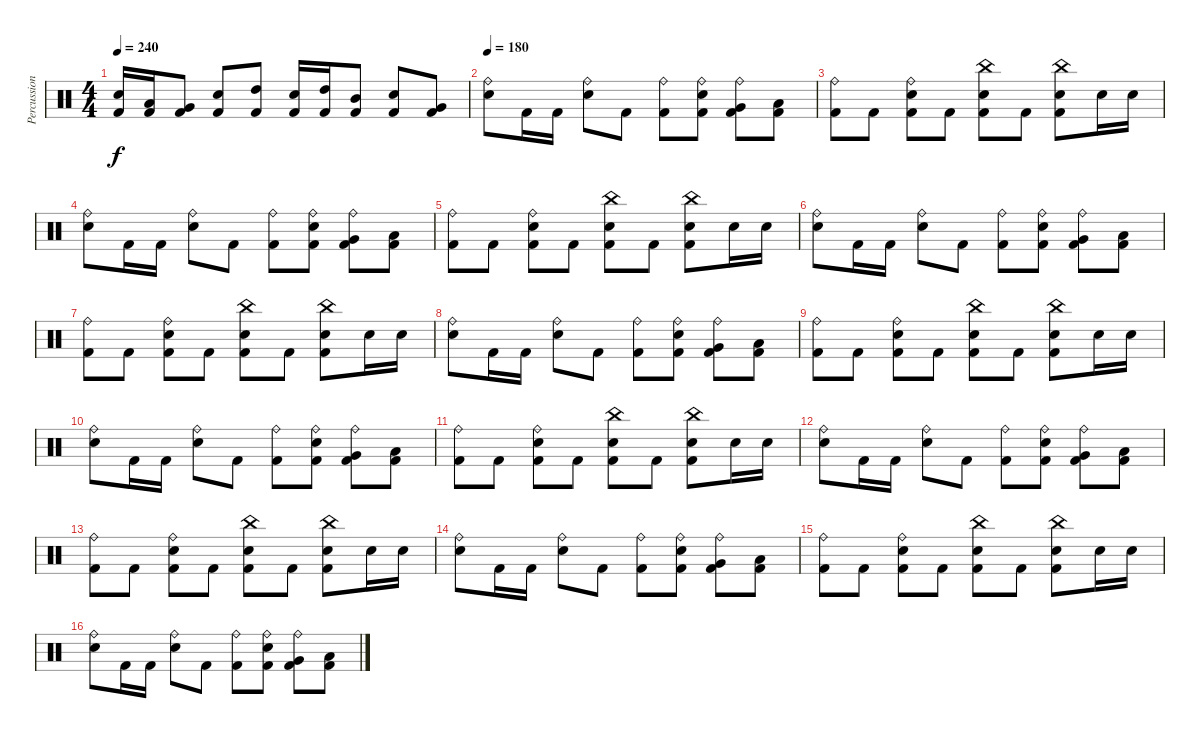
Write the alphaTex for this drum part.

\track ("Percussion" "Percussion") {mute instrument percussion}
\staff {score}
\articulation defaults
\ts (4 4)
\tempo 240
\clef neutral
\ks c
("Electric Snare (hit)" "Kick (hit) 2").16{dy f} ("Low Tom (hit)" "Kick (hit) 2").16 ("Very Low Tom (hit)" "Kick (hit) 2").8 ("Electric Snare (hit)" "Kick (hit) 2").8 ("High Tom (hit)" "Kick (hit) 2").8 ("Electric Snare (hit)" "Kick (hit) 2").16 ("High Tom (hit)" "Kick (hit) 2").16 ("Mid Tom (hit)" "Kick (hit) 2").8 ("Electric Snare (hit)" "Kick (hit) 2").8 ("Very Low Tom (hit)" "Kick (hit) 2").8 |
\tempo 180
("Ride (bell)" "Electric Snare (hit)").8 "Kick (hit) 2".16 "Kick (hit) 2".16 ("Ride (bell)" "Electric Snare (hit)").8 "Kick (hit) 2".8 ("Ride (bell)" "Kick (hit) 2").8 ("Ride (bell)" "Electric Snare (hit)" "Kick (hit) 2").8 ("Ride (bell)" "Very Low Tom (hit)" "Kick (hit) 2").8 ("Low Floor Tom (hit)" "Kick (hit) 2").8 |
("Ride (bell)" "Kick (hit) 2").8 "Kick (hit) 2".8 ("Ride (bell)" "Electric Snare (hit)" "Kick (hit) 2").8 "Kick (hit) 2".8 ("China (hit)" "Electric Snare (hit)" "Kick (hit) 2").8 "Kick (hit) 2".8 ("China (hit)" "Electric Snare (hit)" "Kick (hit) 2").8 "Electric Snare (hit)".16 "Electric Snare (hit)".16 |
("Ride (bell)" "Electric Snare (hit)").8 "Kick (hit) 2".16 "Kick (hit) 2".16 ("Ride (bell)" "Electric Snare (hit)").8 "Kick (hit) 2".8 ("Ride (bell)" "Kick (hit) 2").8 ("Ride (bell)" "Electric Snare (hit)" "Kick (hit) 2").8 ("Ride (bell)" "Very Low Tom (hit)" "Kick (hit) 2").8 ("Low Floor Tom (hit)" "Kick (hit) 2").8 |
("Ride (bell)" "Kick (hit) 2").8 "Kick (hit) 2".8 ("Ride (bell)" "Electric Snare (hit)" "Kick (hit) 2").8 "Kick (hit) 2".8 ("China (hit)" "Electric Snare (hit)" "Kick (hit) 2").8 "Kick (hit) 2".8 ("China (hit)" "Electric Snare (hit)" "Kick (hit) 2").8 "Electric Snare (hit)".16 "Electric Snare (hit)".16 |
("Ride (bell)" "Electric Snare (hit)").8 "Kick (hit) 2".16 "Kick (hit) 2".16 ("Ride (bell)" "Electric Snare (hit)").8 "Kick (hit) 2".8 ("Ride (bell)" "Kick (hit) 2").8 ("Ride (bell)" "Electric Snare (hit)" "Kick (hit) 2").8 ("Ride (bell)" "Very Low Tom (hit)" "Kick (hit) 2").8 ("Low Floor Tom (hit)" "Kick (hit) 2").8 |
("Ride (bell)" "Kick (hit) 2").8 "Kick (hit) 2".8 ("Ride (bell)" "Electric Snare (hit)" "Kick (hit) 2").8 "Kick (hit) 2".8 ("China (hit)" "Electric Snare (hit)" "Kick (hit) 2").8 "Kick (hit) 2".8 ("China (hit)" "Electric Snare (hit)" "Kick (hit) 2").8 "Electric Snare (hit)".16 "Electric Snare (hit)".16 |
("Ride (bell)" "Electric Snare (hit)").8 "Kick (hit) 2".16 "Kick (hit) 2".16 ("Ride (bell)" "Electric Snare (hit)").8 "Kick (hit) 2".8 ("Ride (bell)" "Kick (hit) 2").8 ("Ride (bell)" "Electric Snare (hit)" "Kick (hit) 2").8 ("Ride (bell)" "Very Low Tom (hit)" "Kick (hit) 2").8 ("Low Floor Tom (hit)" "Kick (hit) 2").8 |
("Ride (bell)" "Kick (hit) 2").8 "Kick (hit) 2".8 ("Ride (bell)" "Electric Snare (hit)" "Kick (hit) 2").8 "Kick (hit) 2".8 ("China (hit)" "Electric Snare (hit)" "Kick (hit) 2").8 "Kick (hit) 2".8 ("China (hit)" "Electric Snare (hit)" "Kick (hit) 2").8 "Electric Snare (hit)".16 "Electric Snare (hit)".16 |
("Ride (bell)" "Electric Snare (hit)").8 "Kick (hit) 2".16 "Kick (hit) 2".16 ("Ride (bell)" "Electric Snare (hit)").8 "Kick (hit) 2".8 ("Ride (bell)" "Kick (hit) 2").8 ("Ride (bell)" "Electric Snare (hit)" "Kick (hit) 2").8 ("Ride (bell)" "Very Low Tom (hit)" "Kick (hit) 2").8 ("Low Floor Tom (hit)" "Kick (hit) 2").8 |
("Ride (bell)" "Kick (hit) 2").8 "Kick (hit) 2".8 ("Ride (bell)" "Electric Snare (hit)" "Kick (hit) 2").8 "Kick (hit) 2".8 ("China (hit)" "Electric Snare (hit)" "Kick (hit) 2").8 "Kick (hit) 2".8 ("China (hit)" "Electric Snare (hit)" "Kick (hit) 2").8 "Electric Snare (hit)".16 "Electric Snare (hit)".16 |
("Ride (bell)" "Electric Snare (hit)").8 "Kick (hit) 2".16 "Kick (hit) 2".16 ("Ride (bell)" "Electric Snare (hit)").8 "Kick (hit) 2".8 ("Ride (bell)" "Kick (hit) 2").8 ("Ride (bell)" "Electric Snare (hit)" "Kick (hit) 2").8 ("Ride (bell)" "Very Low Tom (hit)" "Kick (hit) 2").8 ("Low Floor Tom (hit)" "Kick (hit) 2").8 |
("Ride (bell)" "Kick (hit) 2").8 "Kick (hit) 2".8 ("Ride (bell)" "Electric Snare (hit)" "Kick (hit) 2").8 "Kick (hit) 2".8 ("China (hit)" "Electric Snare (hit)" "Kick (hit) 2").8 "Kick (hit) 2".8 ("China (hit)" "Electric Snare (hit)" "Kick (hit) 2").8 "Electric Snare (hit)".16 "Electric Snare (hit)".16 |
("Ride (bell)" "Electric Snare (hit)").8 "Kick (hit) 2".16 "Kick (hit) 2".16 ("Ride (bell)" "Electric Snare (hit)").8 "Kick (hit) 2".8 ("Ride (bell)" "Kick (hit) 2").8 ("Ride (bell)" "Electric Snare (hit)" "Kick (hit) 2").8 ("Ride (bell)" "Very Low Tom (hit)" "Kick (hit) 2").8 ("Low Floor Tom (hit)" "Kick (hit) 2").8 |
("Ride (bell)" "Kick (hit) 2").8 "Kick (hit) 2".8 ("Ride (bell)" "Electric Snare (hit)" "Kick (hit) 2").8 "Kick (hit) 2".8 ("China (hit)" "Electric Snare (hit)" "Kick (hit) 2").8 "Kick (hit) 2".8 ("China (hit)" "Electric Snare (hit)" "Kick (hit) 2").8 "Electric Snare (hit)".16 "Electric Snare (hit)".16 |
("Ride (bell)" "Electric Snare (hit)").8 "Kick (hit) 2".16 "Kick (hit) 2".16 ("Ride (bell)" "Electric Snare (hit)").8 "Kick (hit) 2".8 ("Ride (bell)" "Kick (hit) 2").8 ("Ride (bell)" "Electric Snare (hit)" "Kick (hit) 2").8 ("Ride (bell)" "Very Low Tom (hit)" "Kick (hit) 2").8 ("Low Floor Tom (hit)" "Kick (hit) 2").8
